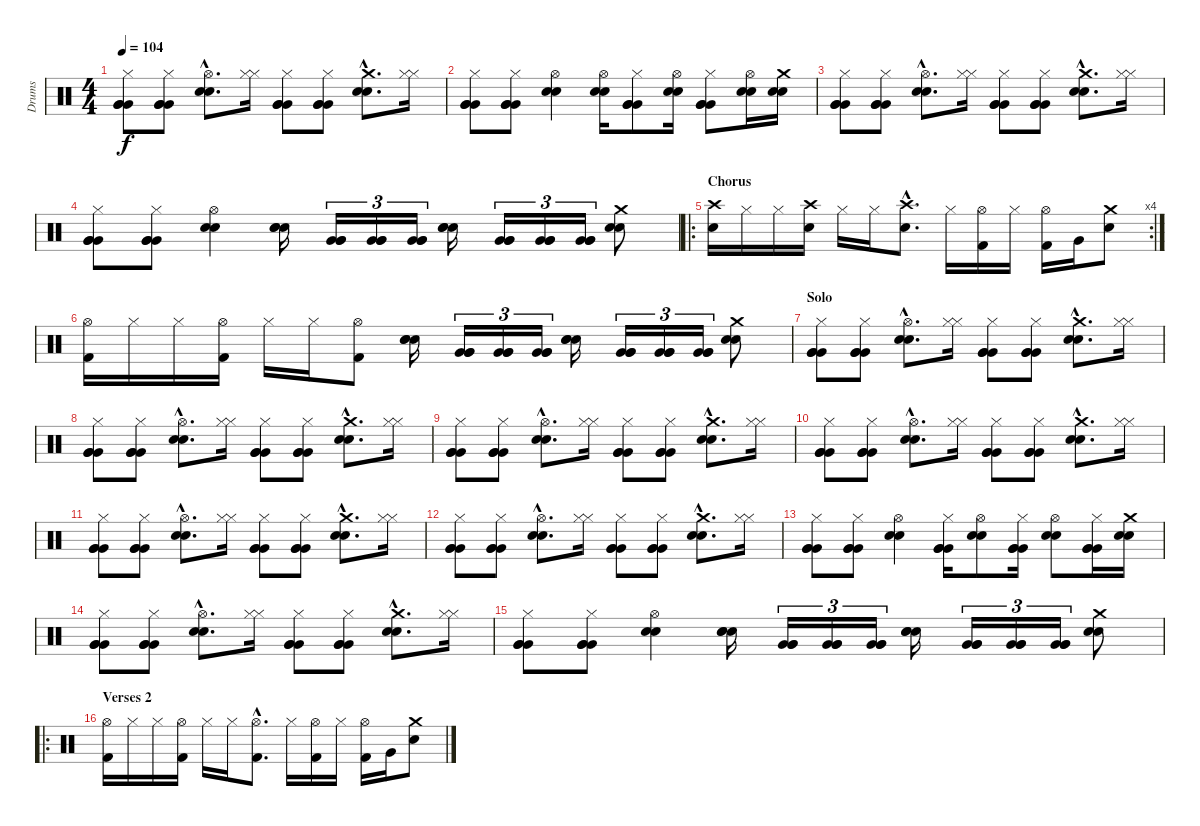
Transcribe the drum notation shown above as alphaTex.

\track ("Drums" "Drums") {instrument percussion}
\staff {score}
\articulation defaults
\ts (4 4)
\tempo 104
\clef neutral
\ks c
("Very Low Tom (hit)" "Very Low Tom (hit)" "Hi-Hat (closed)" "Very Low Tom (hit)").8{dy f} ("Very Low Tom (hit)" "Very Low Tom (hit)" "Hi-Hat (closed)" "Very Low Tom (hit)").8 ("Hi-Hat (open)"{hac} "Snare (hit) 2"{hac} "Snare (hit) 2"{hac}).8{d} ("Hi-Hat (closed)" "Hi-Hat (closed)").16 ("Very Low Tom (hit)" "Very Low Tom (hit)" "Hi-Hat (closed)" "Very Low Tom (hit)").8 ("Very Low Tom (hit)" "Very Low Tom (hit)" "Hi-Hat (closed)" "Very Low Tom (hit)").8 ("Crash medium (hit)"{hac} "Snare (hit) 2"{hac} "Snare (hit) 2"{hac}).8{d} ("Hi-Hat (closed)" "Hi-Hat (closed)").16 |
("Very Low Tom (hit)" "Very Low Tom (hit)" "Hi-Hat (closed)" "Very Low Tom (hit)").8 ("Very Low Tom (hit)" "Very Low Tom (hit)" "Hi-Hat (closed)" "Very Low Tom (hit)").8 ("Hi-Hat (open)" "Snare (hit) 2" "Snare (hit) 2").4 ("Hi-Hat (open)" "Snare (hit) 2" "Snare (hit) 2").16 ("Very Low Tom (hit)" "Very Low Tom (hit)" "Hi-Hat (closed)" "Very Low Tom (hit)").8 ("Hi-Hat (open)" "Snare (hit) 2" "Snare (hit) 2").16 ("Very Low Tom (hit)" "Very Low Tom (hit)" "Hi-Hat (closed)" "Very Low Tom (hit)").8 ("Hi-Hat (open)" "Snare (hit) 2" "Snare (hit) 2").16 ("Crash medium (hit)" "Snare (hit) 2" "Snare (hit) 2").16 |
("Very Low Tom (hit)" "Very Low Tom (hit)" "Hi-Hat (closed)" "Very Low Tom (hit)").8 ("Very Low Tom (hit)" "Very Low Tom (hit)" "Hi-Hat (closed)" "Very Low Tom (hit)").8 ("Hi-Hat (open)"{hac} "Snare (hit) 2"{hac} "Snare (hit) 2"{hac}).8{d} ("Hi-Hat (closed)" "Hi-Hat (closed)").16 ("Very Low Tom (hit)" "Very Low Tom (hit)" "Hi-Hat (closed)" "Very Low Tom (hit)").8 ("Very Low Tom (hit)" "Very Low Tom (hit)" "Hi-Hat (closed)" "Very Low Tom (hit)").8 ("Crash medium (hit)"{hac} "Snare (hit) 2"{hac} "Snare (hit) 2"{hac}).8{d} ("Hi-Hat (closed)" "Hi-Hat (closed)").16 |
("Very Low Tom (hit)" "Very Low Tom (hit)" "Hi-Hat (closed)" "Very Low Tom (hit)").8 ("Very Low Tom (hit)" "Very Low Tom (hit)" "Hi-Hat (closed)" "Very Low Tom (hit)").8 ("Hi-Hat (open)" "Snare (hit) 2" "Snare (hit) 2").4 ("Snare (hit) 2" "Snare (hit) 2" "Snare (hit) 2").16 ("Very Low Tom (hit)" "Very Low Tom (hit)" "Very Low Tom (hit)").16{tu (3 2)} ("Very Low Tom (hit)" "Very Low Tom (hit)" "Very Low Tom (hit)").16{tu (3 2)} ("Very Low Tom (hit)" "Very Low Tom (hit)" "Very Low Tom (hit)").16{tu (3 2)} ("Snare (hit) 2" "Snare (hit) 2" "Snare (hit) 2").16 ("Very Low Tom (hit)" "Very Low Tom (hit)" "Very Low Tom (hit)").16{tu (3 2)} ("Very Low Tom (hit)" "Very Low Tom (hit)" "Very Low Tom (hit)").16{tu (3 2)} ("Very Low Tom (hit)" "Very Low Tom (hit)" "Very Low Tom (hit)").16{tu (3 2)} ("Crash medium (hit)" "Snare (hit) 2" "Snare (hit) 2").8 |
\ro
\rc 4
\section ("" "Chorus")
("Crash high (hit)" "Snare (hit) 2").16 "Hi-Hat (closed)".16 "Hi-Hat (closed)".16 ("Crash high (hit)" "Snare (hit) 2").16 "Hi-Hat (closed)".16 "Hi-Hat (closed)".16 ("Crash high (hit)"{hac} "Snare (hit) 2"{hac}).8{d} "Hi-Hat (closed)".16 ("Hi-Hat (open)" "Kick (hit) 2").16 "Hi-Hat (closed)".16 ("Hi-Hat (open)" "Kick (hit) 2").16 "Very Low Tom (hit)".16 ("Crash medium (hit)" "Snare (hit) 2").8 |
("Hi-Hat (open)" "Kick (hit) 2").16 "Hi-Hat (closed)".16 "Hi-Hat (closed)".16 ("Hi-Hat (open)" "Kick (hit) 2").16 "Hi-Hat (closed)".16 "Hi-Hat (closed)".16 ("Hi-Hat (open)" "Kick (hit) 2").8 ("Snare (hit) 2" "Snare (hit) 2" "Snare (hit) 2").16 ("Very Low Tom (hit)" "Very Low Tom (hit)" "Very Low Tom (hit)").16{tu (3 2)} ("Very Low Tom (hit)" "Very Low Tom (hit)" "Very Low Tom (hit)").16{tu (3 2)} ("Very Low Tom (hit)" "Very Low Tom (hit)" "Very Low Tom (hit)").16{tu (3 2)} ("Snare (hit) 2" "Snare (hit) 2" "Snare (hit) 2").16 ("Very Low Tom (hit)" "Very Low Tom (hit)" "Very Low Tom (hit)").16{tu (3 2)} ("Very Low Tom (hit)" "Very Low Tom (hit)" "Very Low Tom (hit)").16{tu (3 2)} ("Very Low Tom (hit)" "Very Low Tom (hit)" "Very Low Tom (hit)").16{tu (3 2)} ("Crash medium (hit)" "Snare (hit) 2" "Snare (hit) 2").8 |
\section ("" "Solo")
("Very Low Tom (hit)" "Very Low Tom (hit)" "Hi-Hat (closed)" "Very Low Tom (hit)").8 ("Very Low Tom (hit)" "Very Low Tom (hit)" "Hi-Hat (closed)" "Very Low Tom (hit)").8 ("Hi-Hat (open)"{hac} "Snare (hit) 2"{hac} "Snare (hit) 2"{hac}).8{d} ("Hi-Hat (closed)" "Hi-Hat (closed)").16 ("Very Low Tom (hit)" "Very Low Tom (hit)" "Hi-Hat (closed)" "Very Low Tom (hit)").8 ("Very Low Tom (hit)" "Very Low Tom (hit)" "Hi-Hat (closed)" "Very Low Tom (hit)").8 ("Crash medium (hit)"{hac} "Snare (hit) 2"{hac} "Snare (hit) 2"{hac}).8{d} ("Hi-Hat (closed)" "Hi-Hat (closed)").16 |
("Very Low Tom (hit)" "Very Low Tom (hit)" "Hi-Hat (closed)" "Very Low Tom (hit)").8 ("Very Low Tom (hit)" "Very Low Tom (hit)" "Hi-Hat (closed)" "Very Low Tom (hit)").8 ("Hi-Hat (open)"{hac} "Snare (hit) 2"{hac} "Snare (hit) 2"{hac}).8{d} ("Hi-Hat (closed)" "Hi-Hat (closed)").16 ("Very Low Tom (hit)" "Very Low Tom (hit)" "Hi-Hat (closed)" "Very Low Tom (hit)").8 ("Very Low Tom (hit)" "Very Low Tom (hit)" "Hi-Hat (closed)" "Very Low Tom (hit)").8 ("Crash medium (hit)"{hac} "Snare (hit) 2"{hac} "Snare (hit) 2"{hac}).8{d} ("Hi-Hat (closed)" "Hi-Hat (closed)").16 |
("Very Low Tom (hit)" "Very Low Tom (hit)" "Hi-Hat (closed)" "Very Low Tom (hit)").8 ("Very Low Tom (hit)" "Very Low Tom (hit)" "Hi-Hat (closed)" "Very Low Tom (hit)").8 ("Hi-Hat (open)"{hac} "Snare (hit) 2"{hac} "Snare (hit) 2"{hac}).8{d} ("Hi-Hat (closed)" "Hi-Hat (closed)").16 ("Very Low Tom (hit)" "Very Low Tom (hit)" "Hi-Hat (closed)" "Very Low Tom (hit)").8 ("Very Low Tom (hit)" "Very Low Tom (hit)" "Hi-Hat (closed)" "Very Low Tom (hit)").8 ("Crash medium (hit)"{hac} "Snare (hit) 2"{hac} "Snare (hit) 2"{hac}).8{d} ("Hi-Hat (closed)" "Hi-Hat (closed)").16 |
("Very Low Tom (hit)" "Very Low Tom (hit)" "Hi-Hat (closed)" "Very Low Tom (hit)").8 ("Very Low Tom (hit)" "Very Low Tom (hit)" "Hi-Hat (closed)" "Very Low Tom (hit)").8 ("Hi-Hat (open)"{hac} "Snare (hit) 2"{hac} "Snare (hit) 2"{hac}).8{d} ("Hi-Hat (closed)" "Hi-Hat (closed)").16 ("Very Low Tom (hit)" "Very Low Tom (hit)" "Hi-Hat (closed)" "Very Low Tom (hit)").8 ("Very Low Tom (hit)" "Very Low Tom (hit)" "Hi-Hat (closed)" "Very Low Tom (hit)").8 ("Crash medium (hit)"{hac} "Snare (hit) 2"{hac} "Snare (hit) 2"{hac}).8{d} ("Hi-Hat (closed)" "Hi-Hat (closed)").16 |
("Very Low Tom (hit)" "Very Low Tom (hit)" "Hi-Hat (closed)" "Very Low Tom (hit)").8 ("Very Low Tom (hit)" "Very Low Tom (hit)" "Hi-Hat (closed)" "Very Low Tom (hit)").8 ("Hi-Hat (open)"{hac} "Snare (hit) 2"{hac} "Snare (hit) 2"{hac}).8{d} ("Hi-Hat (closed)" "Hi-Hat (closed)").16 ("Very Low Tom (hit)" "Very Low Tom (hit)" "Hi-Hat (closed)" "Very Low Tom (hit)").8 ("Very Low Tom (hit)" "Very Low Tom (hit)" "Hi-Hat (closed)" "Very Low Tom (hit)").8 ("Crash medium (hit)"{hac} "Snare (hit) 2"{hac} "Snare (hit) 2"{hac}).8{d} ("Hi-Hat (closed)" "Hi-Hat (closed)").16 |
("Very Low Tom (hit)" "Very Low Tom (hit)" "Hi-Hat (closed)" "Very Low Tom (hit)").8 ("Very Low Tom (hit)" "Very Low Tom (hit)" "Hi-Hat (closed)" "Very Low Tom (hit)").8 ("Hi-Hat (open)"{hac} "Snare (hit) 2"{hac} "Snare (hit) 2"{hac}).8{d} ("Hi-Hat (closed)" "Hi-Hat (closed)").16 ("Very Low Tom (hit)" "Very Low Tom (hit)" "Hi-Hat (closed)" "Very Low Tom (hit)").8 ("Very Low Tom (hit)" "Very Low Tom (hit)" "Hi-Hat (closed)" "Very Low Tom (hit)").8 ("Crash medium (hit)"{hac} "Snare (hit) 2"{hac} "Snare (hit) 2"{hac}).8{d} ("Hi-Hat (closed)" "Hi-Hat (closed)").16 |
("Very Low Tom (hit)" "Very Low Tom (hit)" "Hi-Hat (closed)" "Very Low Tom (hit)").8 ("Very Low Tom (hit)" "Very Low Tom (hit)" "Hi-Hat (closed)" "Very Low Tom (hit)").8 ("Hi-Hat (open)" "Snare (hit) 2" "Snare (hit) 2").4 ("Very Low Tom (hit)" "Very Low Tom (hit)" "Hi-Hat (closed)" "Very Low Tom (hit)").16 ("Hi-Hat (open)" "Snare (hit) 2" "Snare (hit) 2").8 ("Very Low Tom (hit)" "Very Low Tom (hit)" "Hi-Hat (closed)" "Very Low Tom (hit)").16 ("Hi-Hat (open)" "Snare (hit) 2" "Snare (hit) 2").8 ("Very Low Tom (hit)" "Very Low Tom (hit)" "Hi-Hat (closed)" "Very Low Tom (hit)").16 ("Crash medium (hit)" "Snare (hit) 2" "Snare (hit) 2").16 |
("Very Low Tom (hit)" "Very Low Tom (hit)" "Hi-Hat (closed)" "Very Low Tom (hit)").8 ("Very Low Tom (hit)" "Very Low Tom (hit)" "Hi-Hat (closed)" "Very Low Tom (hit)").8 ("Hi-Hat (open)"{hac} "Snare (hit) 2"{hac} "Snare (hit) 2"{hac}).8{d} ("Hi-Hat (closed)" "Hi-Hat (closed)").16 ("Very Low Tom (hit)" "Very Low Tom (hit)" "Hi-Hat (closed)" "Very Low Tom (hit)").8 ("Very Low Tom (hit)" "Very Low Tom (hit)" "Hi-Hat (closed)" "Very Low Tom (hit)").8 ("Crash medium (hit)"{hac} "Snare (hit) 2"{hac} "Snare (hit) 2"{hac}).8{d} ("Hi-Hat (closed)" "Hi-Hat (closed)").16 |
("Very Low Tom (hit)" "Very Low Tom (hit)" "Hi-Hat (closed)" "Very Low Tom (hit)").8 ("Very Low Tom (hit)" "Very Low Tom (hit)" "Hi-Hat (closed)" "Very Low Tom (hit)").8 ("Hi-Hat (open)" "Snare (hit) 2" "Snare (hit) 2").4 ("Snare (hit) 2" "Snare (hit) 2" "Snare (hit) 2").16 ("Very Low Tom (hit)" "Very Low Tom (hit)" "Very Low Tom (hit)").16{tu (3 2)} ("Very Low Tom (hit)" "Very Low Tom (hit)" "Very Low Tom (hit)").16{tu (3 2)} ("Very Low Tom (hit)" "Very Low Tom (hit)" "Very Low Tom (hit)").16{tu (3 2)} ("Snare (hit) 2" "Snare (hit) 2" "Snare (hit) 2").16 ("Very Low Tom (hit)" "Very Low Tom (hit)" "Very Low Tom (hit)").16{tu (3 2)} ("Very Low Tom (hit)" "Very Low Tom (hit)" "Very Low Tom (hit)").16{tu (3 2)} ("Very Low Tom (hit)" "Very Low Tom (hit)" "Very Low Tom (hit)").16{tu (3 2)} ("Crash medium (hit)" "Snare (hit) 2" "Snare (hit) 2").8 |
\ro
\section ("" "Verses 2")
("Hi-Hat (open)" "Kick (hit) 2").16 "Hi-Hat (closed)".16 "Hi-Hat (closed)".16 ("Hi-Hat (open)" "Kick (hit) 2").16 "Hi-Hat (closed)".16 "Hi-Hat (closed)".16 ("Hi-Hat (open)"{hac} "Kick (hit) 2"{hac}).8{d} "Hi-Hat (closed)".16 ("Hi-Hat (open)" "Kick (hit) 2").16 "Hi-Hat (closed)".16 ("Hi-Hat (open)" "Kick (hit) 2").16 "Very Low Tom (hit)".16 ("Crash medium (hit)" "Snare (hit) 2").8
